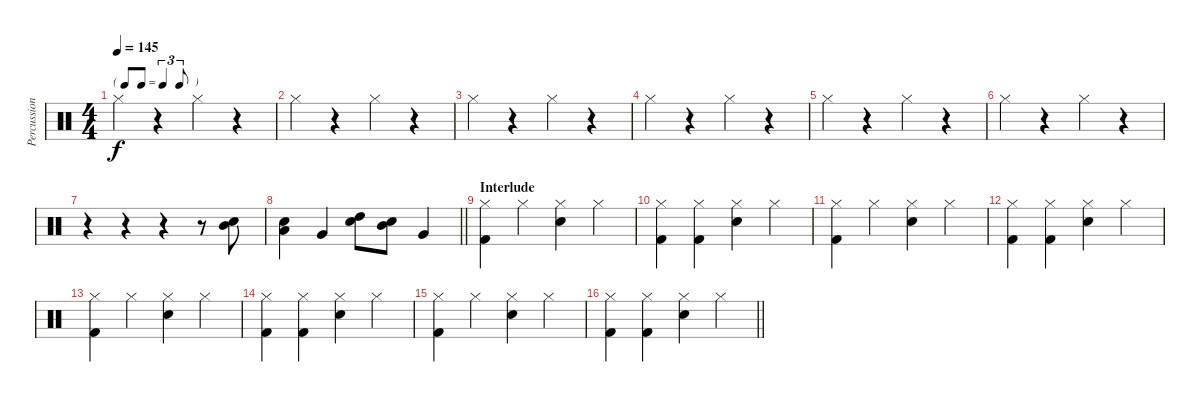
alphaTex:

\track ("Percussion" "Percussion") {instrument percussion}
\staff {score}
\articulation defaults
\ts (4 4)
\tf triplet8th
\tempo 145
\clef neutral
\ks c "Hi-Hat (closed)".4{dy f}
r.4 "Hi-Hat (closed)".4 r.4 |
"Hi-Hat (closed)".4 r.4 "Hi-Hat (closed)".4 r.4 |
"Hi-Hat (closed)".4 r.4 "Hi-Hat (closed)".4 r.4 |
"Hi-Hat (closed)".4 r.4 "Hi-Hat (closed)".4 r.4 |
"Hi-Hat (closed)".4 r.4 "Hi-Hat (closed)".4 r.4 |
"Hi-Hat (closed)".4 r.4 "Hi-Hat (closed)".4 r.4 |
r.4 r.4 r.4 r.8 ("Mid Tom (hit)" "Snare (hit) 2").8 |
\barLineRight lightlight
("Low Tom (hit)" "Snare (hit) 2").4 "Very Low Tom (hit)".4 ("High Tom (hit)" "Snare (hit) 2").8 ("Mid Tom (hit)" "Snare (hit) 2").8 "Very Low Tom (hit)".4 |
\section ("" "Interlude")
("Hi-Hat (closed)" "Kick (hit) 2").4 "Hi-Hat (closed)".4 ("Hi-Hat (closed)" "Electric Snare (hit)").4 "Hi-Hat (closed)".4 |
("Hi-Hat (closed)" "Kick (hit) 2").4 ("Hi-Hat (closed)" "Kick (hit) 2").4 ("Hi-Hat (closed)" "Electric Snare (hit)").4 "Hi-Hat (closed)".4 |
("Hi-Hat (closed)" "Kick (hit) 2").4 "Hi-Hat (closed)".4 ("Hi-Hat (closed)" "Electric Snare (hit)").4 "Hi-Hat (closed)".4 |
("Hi-Hat (closed)" "Kick (hit) 2").4 ("Hi-Hat (closed)" "Kick (hit) 2").4 ("Hi-Hat (closed)" "Electric Snare (hit)").4 "Hi-Hat (closed)".4 |
("Hi-Hat (closed)" "Kick (hit) 2").4 "Hi-Hat (closed)".4 ("Hi-Hat (closed)" "Electric Snare (hit)").4 "Hi-Hat (closed)".4 |
("Hi-Hat (closed)" "Kick (hit) 2").4 ("Hi-Hat (closed)" "Kick (hit) 2").4 ("Hi-Hat (closed)" "Electric Snare (hit)").4 "Hi-Hat (closed)".4 |
("Hi-Hat (closed)" "Kick (hit) 2").4 "Hi-Hat (closed)".4 ("Hi-Hat (closed)" "Electric Snare (hit)").4 "Hi-Hat (closed)".4 |
\barLineRight lightlight
("Hi-Hat (closed)" "Kick (hit) 2").4 ("Hi-Hat (closed)" "Kick (hit) 2").4 ("Hi-Hat (closed)" "Electric Snare (hit)").4 "Hi-Hat (closed)".4
